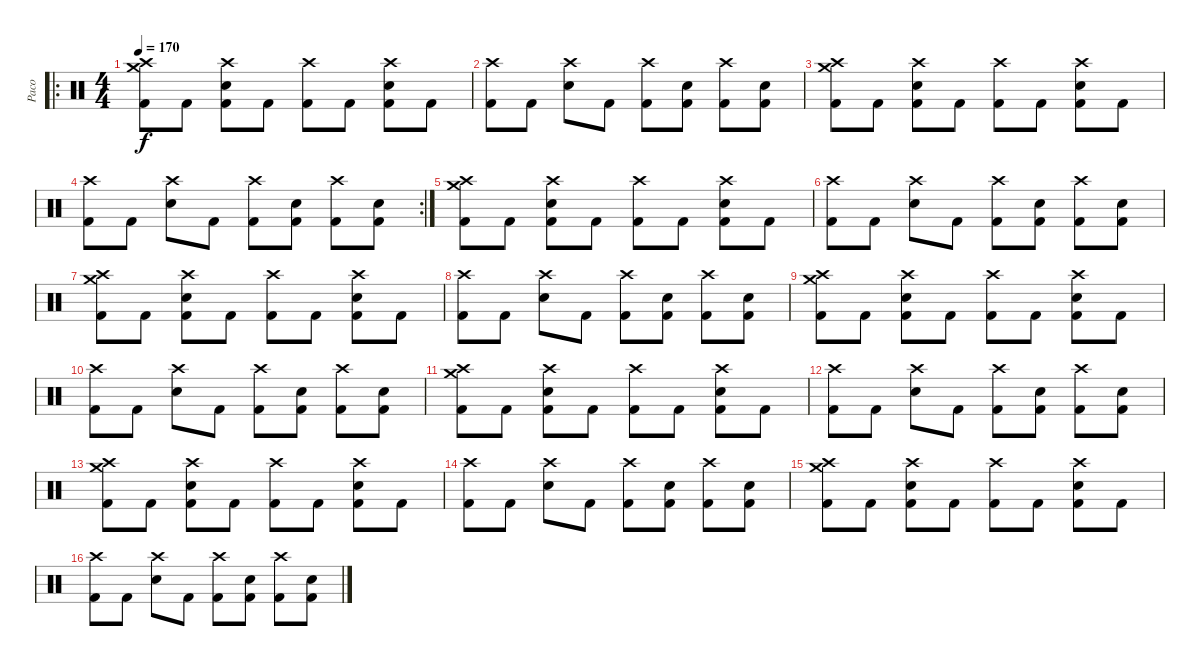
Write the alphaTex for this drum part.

\track ("Paco" "Paco") {instrument percussion}
\staff {score}
\articulation defaults
\ro
\ts (4 4)
\tempo 170
\clef neutral
\ks c
("Crash high (hit)" "Crash medium (hit)" "Kick (hit) 2").8{dy f} "Kick (hit) 2".8 ("Crash high (hit)" "Electric Snare (hit)" "Kick (hit) 2").8 "Kick (hit) 2".8 ("Crash high (hit)" "Kick (hit) 2").8 "Kick (hit) 2".8 ("Crash high (hit)" "Electric Snare (hit)" "Kick (hit) 2").8 "Kick (hit) 2".8 |
("Crash high (hit)" "Kick (hit) 2").8 "Kick (hit) 2".8 ("Crash high (hit)" "Electric Snare (hit)").8 "Kick (hit) 2".8 ("Crash high (hit)" "Kick (hit) 2").8 ("Electric Snare (hit)" "Kick (hit) 2").8 ("Crash high (hit)" "Kick (hit) 2").8 ("Electric Snare (hit)" "Kick (hit) 2").8 |
("Crash high (hit)" "Crash medium (hit)" "Kick (hit) 2").8 "Kick (hit) 2".8 ("Crash high (hit)" "Electric Snare (hit)" "Kick (hit) 2").8 "Kick (hit) 2".8 ("Crash high (hit)" "Kick (hit) 2").8 "Kick (hit) 2".8 ("Crash high (hit)" "Electric Snare (hit)" "Kick (hit) 2").8 "Kick (hit) 2".8 |
\rc 2
("Crash high (hit)" "Kick (hit) 2").8 "Kick (hit) 2".8 ("Crash high (hit)" "Electric Snare (hit)").8 "Kick (hit) 2".8 ("Crash high (hit)" "Kick (hit) 2").8 ("Electric Snare (hit)" "Kick (hit) 2").8 ("Crash high (hit)" "Kick (hit) 2").8 ("Electric Snare (hit)" "Kick (hit) 2").8 |
("Crash high (hit)" "Crash medium (hit)" "Kick (hit) 2").8 "Kick (hit) 2".8 ("Crash high (hit)" "Electric Snare (hit)" "Kick (hit) 2").8 "Kick (hit) 2".8 ("Crash high (hit)" "Kick (hit) 2").8 "Kick (hit) 2".8 ("Crash high (hit)" "Electric Snare (hit)" "Kick (hit) 2").8 "Kick (hit) 2".8 |
("Crash high (hit)" "Kick (hit) 2").8 "Kick (hit) 2".8 ("Crash high (hit)" "Electric Snare (hit)").8 "Kick (hit) 2".8 ("Crash high (hit)" "Kick (hit) 2").8 ("Electric Snare (hit)" "Kick (hit) 2").8 ("Crash high (hit)" "Kick (hit) 2").8 ("Electric Snare (hit)" "Kick (hit) 2").8 |
("Crash high (hit)" "Crash medium (hit)" "Kick (hit) 2").8 "Kick (hit) 2".8 ("Crash high (hit)" "Electric Snare (hit)" "Kick (hit) 2").8 "Kick (hit) 2".8 ("Crash high (hit)" "Kick (hit) 2").8 "Kick (hit) 2".8 ("Crash high (hit)" "Electric Snare (hit)" "Kick (hit) 2").8 "Kick (hit) 2".8 |
("Crash high (hit)" "Kick (hit) 2").8 "Kick (hit) 2".8 ("Crash high (hit)" "Electric Snare (hit)").8 "Kick (hit) 2".8 ("Crash high (hit)" "Kick (hit) 2").8 ("Electric Snare (hit)" "Kick (hit) 2").8 ("Crash high (hit)" "Kick (hit) 2").8 ("Electric Snare (hit)" "Kick (hit) 2").8 |
("Crash high (hit)" "Crash medium (hit)" "Kick (hit) 2").8 "Kick (hit) 2".8 ("Crash high (hit)" "Electric Snare (hit)" "Kick (hit) 2").8 "Kick (hit) 2".8 ("Crash high (hit)" "Kick (hit) 2").8 "Kick (hit) 2".8 ("Crash high (hit)" "Electric Snare (hit)" "Kick (hit) 2").8 "Kick (hit) 2".8 |
("Crash high (hit)" "Kick (hit) 2").8 "Kick (hit) 2".8 ("Crash high (hit)" "Electric Snare (hit)").8 "Kick (hit) 2".8 ("Crash high (hit)" "Kick (hit) 2").8 ("Electric Snare (hit)" "Kick (hit) 2").8 ("Crash high (hit)" "Kick (hit) 2").8 ("Electric Snare (hit)" "Kick (hit) 2").8 |
("Crash high (hit)" "Crash medium (hit)" "Kick (hit) 2").8 "Kick (hit) 2".8 ("Crash high (hit)" "Electric Snare (hit)" "Kick (hit) 2").8 "Kick (hit) 2".8 ("Crash high (hit)" "Kick (hit) 2").8 "Kick (hit) 2".8 ("Crash high (hit)" "Electric Snare (hit)" "Kick (hit) 2").8 "Kick (hit) 2".8 |
("Crash high (hit)" "Kick (hit) 2").8 "Kick (hit) 2".8 ("Crash high (hit)" "Electric Snare (hit)").8 "Kick (hit) 2".8 ("Crash high (hit)" "Kick (hit) 2").8 ("Electric Snare (hit)" "Kick (hit) 2").8 ("Crash high (hit)" "Kick (hit) 2").8 ("Electric Snare (hit)" "Kick (hit) 2").8 |
("Crash high (hit)" "Crash medium (hit)" "Kick (hit) 2").8 "Kick (hit) 2".8 ("Crash high (hit)" "Electric Snare (hit)" "Kick (hit) 2").8 "Kick (hit) 2".8 ("Crash high (hit)" "Kick (hit) 2").8 "Kick (hit) 2".8 ("Crash high (hit)" "Electric Snare (hit)" "Kick (hit) 2").8 "Kick (hit) 2".8 |
("Crash high (hit)" "Kick (hit) 2").8 "Kick (hit) 2".8 ("Crash high (hit)" "Electric Snare (hit)").8 "Kick (hit) 2".8 ("Crash high (hit)" "Kick (hit) 2").8 ("Electric Snare (hit)" "Kick (hit) 2").8 ("Crash high (hit)" "Kick (hit) 2").8 ("Electric Snare (hit)" "Kick (hit) 2").8 |
("Crash high (hit)" "Crash medium (hit)" "Kick (hit) 2").8 "Kick (hit) 2".8 ("Crash high (hit)" "Electric Snare (hit)" "Kick (hit) 2").8 "Kick (hit) 2".8 ("Crash high (hit)" "Kick (hit) 2").8 "Kick (hit) 2".8 ("Crash high (hit)" "Electric Snare (hit)" "Kick (hit) 2").8 "Kick (hit) 2".8 |
("Crash high (hit)" "Kick (hit) 2").8 "Kick (hit) 2".8 ("Crash high (hit)" "Electric Snare (hit)").8 "Kick (hit) 2".8 ("Crash high (hit)" "Kick (hit) 2").8 ("Electric Snare (hit)" "Kick (hit) 2").8 ("Crash high (hit)" "Kick (hit) 2").8 ("Electric Snare (hit)" "Kick (hit) 2").8
